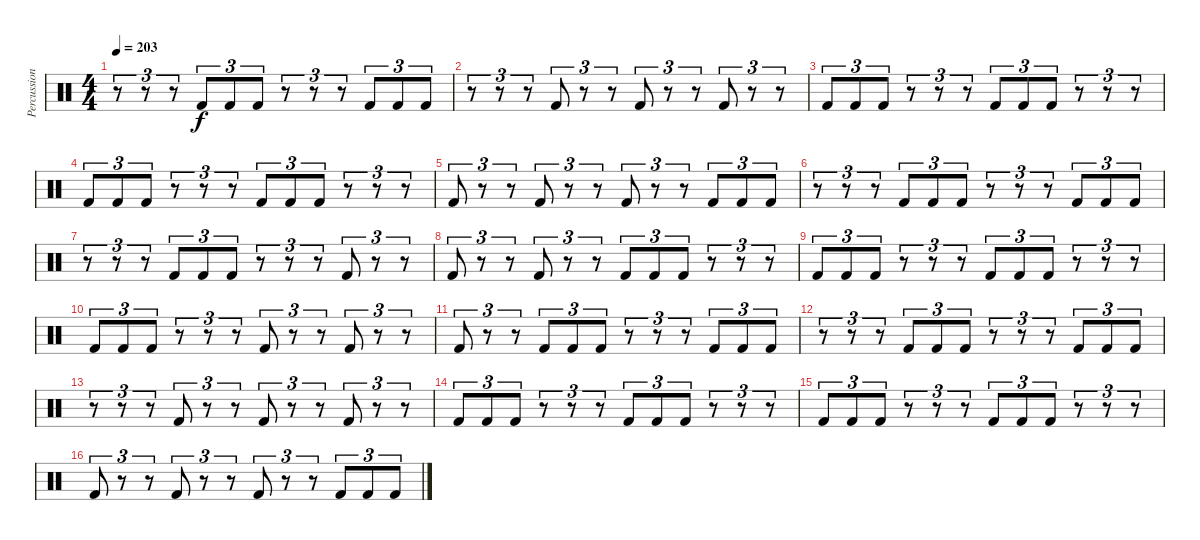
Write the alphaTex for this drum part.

\track ("Percussion" "Percussion") {instrument percussion}
\staff {score}
\articulation defaults
\ts (4 4)
\tempo 203
\clef neutral
\ks c
r.8{tu (3 2) dy f} r.8{tu (3 2)} r.8{tu (3 2)} "Kick (hit) 2".8{tu (3 2)} "Kick (hit) 2".8{tu (3 2)} "Kick (hit) 2".8{tu (3 2)} r.8{tu (3 2)} r.8{tu (3 2)} r.8{tu (3 2)} "Kick (hit) 2".8{tu (3 2)} "Kick (hit) 2".8{tu (3 2)} "Kick (hit) 2".8{tu (3 2)} |
r.8{tu (3 2)} r.8{tu (3 2)} r.8{tu (3 2)} "Kick (hit) 2".8{tu (3 2)} r.8{tu (3 2)} r.8{tu (3 2)} "Kick (hit) 2".8{tu (3 2)} r.8{tu (3 2)} r.8{tu (3 2)} "Kick (hit) 2".8{tu (3 2)} r.8{tu (3 2)} r.8{tu (3 2)} |
"Kick (hit) 2".8{tu (3 2)} "Kick (hit) 2".8{tu (3 2)} "Kick (hit) 2".8{tu (3 2)} r.8{tu (3 2)} r.8{tu (3 2)} r.8{tu (3 2)} "Kick (hit) 2".8{tu (3 2)} "Kick (hit) 2".8{tu (3 2)} "Kick (hit) 2".8{tu (3 2)} r.8{tu (3 2)} r.8{tu (3 2)} r.8{tu (3 2)} |
"Kick (hit) 2".8{tu (3 2)} "Kick (hit) 2".8{tu (3 2)} "Kick (hit) 2".8{tu (3 2)} r.8{tu (3 2)} r.8{tu (3 2)} r.8{tu (3 2)} "Kick (hit) 2".8{tu (3 2)} "Kick (hit) 2".8{tu (3 2)} "Kick (hit) 2".8{tu (3 2)} r.8{tu (3 2)} r.8{tu (3 2)} r.8{tu (3 2)} |
"Kick (hit) 2".8{tu (3 2)} r.8{tu (3 2)} r.8{tu (3 2)} "Kick (hit) 2".8{tu (3 2)} r.8{tu (3 2)} r.8{tu (3 2)} "Kick (hit) 2".8{tu (3 2)} r.8{tu (3 2)} r.8{tu (3 2)} "Kick (hit) 2".8{tu (3 2)} "Kick (hit) 2".8{tu (3 2)} "Kick (hit) 2".8{tu (3 2)} |
r.8{tu (3 2)} r.8{tu (3 2)} r.8{tu (3 2)} "Kick (hit) 2".8{tu (3 2)} "Kick (hit) 2".8{tu (3 2)} "Kick (hit) 2".8{tu (3 2)} r.8{tu (3 2)} r.8{tu (3 2)} r.8{tu (3 2)} "Kick (hit) 2".8{tu (3 2)} "Kick (hit) 2".8{tu (3 2)} "Kick (hit) 2".8{tu (3 2)} |
r.8{tu (3 2)} r.8{tu (3 2)} r.8{tu (3 2)} "Kick (hit) 2".8{tu (3 2)} "Kick (hit) 2".8{tu (3 2)} "Kick (hit) 2".8{tu (3 2)} r.8{tu (3 2)} r.8{tu (3 2)} r.8{tu (3 2)} "Kick (hit) 2".8{tu (3 2)} r.8{tu (3 2)} r.8{tu (3 2)} |
"Kick (hit) 2".8{tu (3 2)} r.8{tu (3 2)} r.8{tu (3 2)} "Kick (hit) 2".8{tu (3 2)} r.8{tu (3 2)} r.8{tu (3 2)} "Kick (hit) 2".8{tu (3 2)} "Kick (hit) 2".8{tu (3 2)} "Kick (hit) 2".8{tu (3 2)} r.8{tu (3 2)} r.8{tu (3 2)} r.8{tu (3 2)} |
"Kick (hit) 2".8{tu (3 2)} "Kick (hit) 2".8{tu (3 2)} "Kick (hit) 2".8{tu (3 2)} r.8{tu (3 2)} r.8{tu (3 2)} r.8{tu (3 2)} "Kick (hit) 2".8{tu (3 2)} "Kick (hit) 2".8{tu (3 2)} "Kick (hit) 2".8{tu (3 2)} r.8{tu (3 2)} r.8{tu (3 2)} r.8{tu (3 2)} |
"Kick (hit) 2".8{tu (3 2)} "Kick (hit) 2".8{tu (3 2)} "Kick (hit) 2".8{tu (3 2)} r.8{tu (3 2)} r.8{tu (3 2)} r.8{tu (3 2)} "Kick (hit) 2".8{tu (3 2)} r.8{tu (3 2)} r.8{tu (3 2)} "Kick (hit) 2".8{tu (3 2)} r.8{tu (3 2)} r.8{tu (3 2)} |
"Kick (hit) 2".8{tu (3 2)} r.8{tu (3 2)} r.8{tu (3 2)} "Kick (hit) 2".8{tu (3 2)} "Kick (hit) 2".8{tu (3 2)} "Kick (hit) 2".8{tu (3 2)} r.8{tu (3 2)} r.8{tu (3 2)} r.8{tu (3 2)} "Kick (hit) 2".8{tu (3 2)} "Kick (hit) 2".8{tu (3 2)} "Kick (hit) 2".8{tu (3 2)} |
r.8{tu (3 2)} r.8{tu (3 2)} r.8{tu (3 2)} "Kick (hit) 2".8{tu (3 2)} "Kick (hit) 2".8{tu (3 2)} "Kick (hit) 2".8{tu (3 2)} r.8{tu (3 2)} r.8{tu (3 2)} r.8{tu (3 2)} "Kick (hit) 2".8{tu (3 2)} "Kick (hit) 2".8{tu (3 2)} "Kick (hit) 2".8{tu (3 2)} |
r.8{tu (3 2)} r.8{tu (3 2)} r.8{tu (3 2)} "Kick (hit) 2".8{tu (3 2)} r.8{tu (3 2)} r.8{tu (3 2)} "Kick (hit) 2".8{tu (3 2)} r.8{tu (3 2)} r.8{tu (3 2)} "Kick (hit) 2".8{tu (3 2)} r.8{tu (3 2)} r.8{tu (3 2)} |
"Kick (hit) 2".8{tu (3 2)} "Kick (hit) 2".8{tu (3 2)} "Kick (hit) 2".8{tu (3 2)} r.8{tu (3 2)} r.8{tu (3 2)} r.8{tu (3 2)} "Kick (hit) 2".8{tu (3 2)} "Kick (hit) 2".8{tu (3 2)} "Kick (hit) 2".8{tu (3 2)} r.8{tu (3 2)} r.8{tu (3 2)} r.8{tu (3 2)} |
"Kick (hit) 2".8{tu (3 2)} "Kick (hit) 2".8{tu (3 2)} "Kick (hit) 2".8{tu (3 2)} r.8{tu (3 2)} r.8{tu (3 2)} r.8{tu (3 2)} "Kick (hit) 2".8{tu (3 2)} "Kick (hit) 2".8{tu (3 2)} "Kick (hit) 2".8{tu (3 2)} r.8{tu (3 2)} r.8{tu (3 2)} r.8{tu (3 2)} |
"Kick (hit) 2".8{tu (3 2)} r.8{tu (3 2)} r.8{tu (3 2)} "Kick (hit) 2".8{tu (3 2)} r.8{tu (3 2)} r.8{tu (3 2)} "Kick (hit) 2".8{tu (3 2)} r.8{tu (3 2)} r.8{tu (3 2)} "Kick (hit) 2".8{tu (3 2)} "Kick (hit) 2".8{tu (3 2)} "Kick (hit) 2".8{tu (3 2)}
